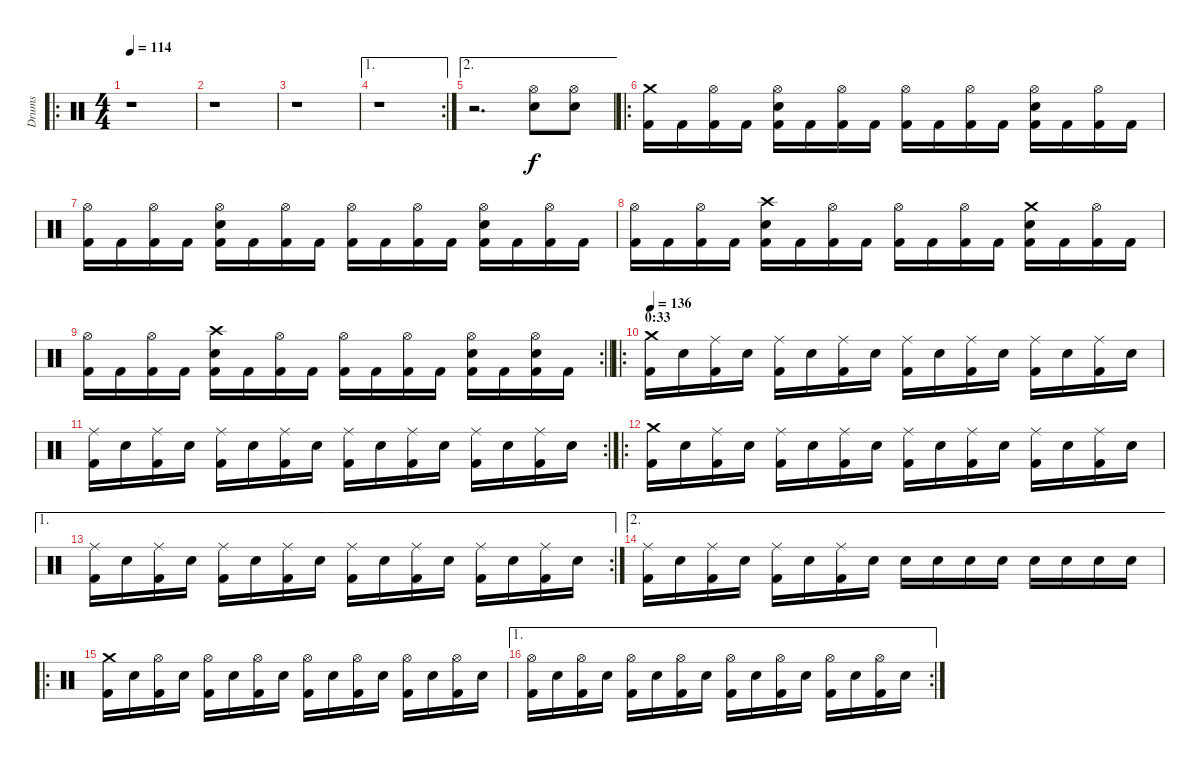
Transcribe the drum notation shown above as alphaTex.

\track ("Drums" "Drums") {instrument percussion}
\staff {score}
\articulation defaults
\ro
\ts (4 4)
\tempo 114
\clef neutral
\ks c
r.1{dy f} |
r.1 |
r.1 |
\ae 1
\rc 2
r.1 |
\ae 2
r.2{d} ("Hi-Hat (open)" "Electric Snare (hit)").8 ("Hi-Hat (open)" "Electric Snare (hit)").8 |
\ro
("Crash medium (hit)" "Kick (hit) 2").16 "Kick (hit) 2".16 ("Hi-Hat (open)" "Kick (hit) 2").16 "Kick (hit) 2".16 ("Hi-Hat (open)" "Electric Snare (hit)" "Kick (hit) 2").16 "Kick (hit) 2".16 ("Hi-Hat (open)" "Kick (hit) 2").16 "Kick (hit) 2".16 ("Hi-Hat (open)" "Kick (hit) 2").16 "Kick (hit) 2".16 ("Hi-Hat (open)" "Kick (hit) 2").16 "Kick (hit) 2".16 ("Hi-Hat (open)" "Electric Snare (hit)" "Kick (hit) 2").16 "Kick (hit) 2".16 ("Hi-Hat (open)" "Kick (hit) 2").16 "Kick (hit) 2".16 |
("Hi-Hat (open)" "Kick (hit) 2").16 "Kick (hit) 2".16 ("Hi-Hat (open)" "Kick (hit) 2").16 "Kick (hit) 2".16 ("Hi-Hat (open)" "Electric Snare (hit)" "Kick (hit) 2").16 "Kick (hit) 2".16 ("Hi-Hat (open)" "Kick (hit) 2").16 "Kick (hit) 2".16 ("Hi-Hat (open)" "Kick (hit) 2").16 "Kick (hit) 2".16 ("Hi-Hat (open)" "Kick (hit) 2").16 "Kick (hit) 2".16 ("Hi-Hat (open)" "Electric Snare (hit)" "Kick (hit) 2").16 "Kick (hit) 2".16 ("Hi-Hat (open)" "Kick (hit) 2").16 "Kick (hit) 2".16 |
("Hi-Hat (open)" "Kick (hit) 2").16 "Kick (hit) 2".16 ("Hi-Hat (open)" "Kick (hit) 2").16 "Kick (hit) 2".16 ("Crash high (hit)" "Electric Snare (hit)" "Kick (hit) 2").16 "Kick (hit) 2".16 ("Hi-Hat (open)" "Kick (hit) 2").16 "Kick (hit) 2".16 ("Hi-Hat (open)" "Kick (hit) 2").16 "Kick (hit) 2".16 ("Hi-Hat (open)" "Kick (hit) 2").16 "Kick (hit) 2".16 ("Crash medium (hit)" "Electric Snare (hit)" "Kick (hit) 2").16 "Kick (hit) 2".16 ("Hi-Hat (open)" "Kick (hit) 2").16 "Kick (hit) 2".16 |
\rc 2
\barLineRight lightlight
("Hi-Hat (open)" "Kick (hit) 2").16 "Kick (hit) 2".16 ("Hi-Hat (open)" "Kick (hit) 2").16 "Kick (hit) 2".16 ("Crash high (hit)" "Electric Snare (hit)" "Kick (hit) 2").16 "Kick (hit) 2".16 ("Hi-Hat (open)" "Kick (hit) 2").16 "Kick (hit) 2".16 ("Hi-Hat (open)" "Kick (hit) 2").16 "Kick (hit) 2".16 ("Hi-Hat (open)" "Kick (hit) 2").16 "Kick (hit) 2".16 ("Hi-Hat (open)" "Electric Snare (hit)" "Kick (hit) 2").16 "Kick (hit) 2".16 ("Hi-Hat (open)" "Electric Snare (hit)" "Kick (hit) 2").16 "Kick (hit) 2".16 |
\ro
\section ("" "0:33")
\tempo 136
("Crash medium (hit)" "Kick (hit) 2").16 "Electric Snare (hit)".16 ("Ride (middle)" "Kick (hit) 2").16 "Electric Snare (hit)".16 ("Ride (middle)" "Kick (hit) 2").16 "Electric Snare (hit)".16 ("Ride (middle)" "Kick (hit) 2").16 "Electric Snare (hit)".16 ("Ride (middle)" "Kick (hit) 2").16 "Electric Snare (hit)".16 ("Ride (middle)" "Kick (hit) 2").16 "Electric Snare (hit)".16 ("Ride (middle)" "Kick (hit) 2").16 "Electric Snare (hit)".16 ("Ride (middle)" "Kick (hit) 2").16 "Electric Snare (hit)".16 |
\rc 2
("Ride (middle)" "Kick (hit) 2").16 "Electric Snare (hit)".16 ("Ride (middle)" "Kick (hit) 2").16 "Electric Snare (hit)".16 ("Ride (middle)" "Kick (hit) 2").16 "Electric Snare (hit)".16 ("Ride (middle)" "Kick (hit) 2").16 "Electric Snare (hit)".16 ("Ride (middle)" "Kick (hit) 2").16 "Electric Snare (hit)".16 ("Ride (middle)" "Kick (hit) 2").16 "Electric Snare (hit)".16 ("Ride (middle)" "Kick (hit) 2").16 "Electric Snare (hit)".16 ("Ride (middle)" "Kick (hit) 2").16 "Electric Snare (hit)".16 |
\ro
("Crash medium (hit)" "Kick (hit) 2").16 "Electric Snare (hit)".16 ("Ride (middle)" "Kick (hit) 2").16 "Electric Snare (hit)".16 ("Ride (middle)" "Kick (hit) 2").16 "Electric Snare (hit)".16 ("Ride (middle)" "Kick (hit) 2").16 "Electric Snare (hit)".16 ("Ride (middle)" "Kick (hit) 2").16 "Electric Snare (hit)".16 ("Ride (middle)" "Kick (hit) 2").16 "Electric Snare (hit)".16 ("Ride (middle)" "Kick (hit) 2").16 "Electric Snare (hit)".16 ("Ride (middle)" "Kick (hit) 2").16 "Electric Snare (hit)".16 |
\ae 1
\rc 2
("Ride (middle)" "Kick (hit) 2").16 "Electric Snare (hit)".16 ("Ride (middle)" "Kick (hit) 2").16 "Electric Snare (hit)".16 ("Ride (middle)" "Kick (hit) 2").16 "Electric Snare (hit)".16 ("Ride (middle)" "Kick (hit) 2").16 "Electric Snare (hit)".16 ("Ride (middle)" "Kick (hit) 2").16 "Electric Snare (hit)".16 ("Ride (middle)" "Kick (hit) 2").16 "Electric Snare (hit)".16 ("Ride (middle)" "Kick (hit) 2").16 "Electric Snare (hit)".16 ("Ride (middle)" "Kick (hit) 2").16 "Electric Snare (hit)".16 |
\ae 2
("Ride (middle)" "Kick (hit) 2").16 "Electric Snare (hit)".16 ("Ride (middle)" "Kick (hit) 2").16 "Electric Snare (hit)".16 ("Ride (middle)" "Kick (hit) 2").16 "Electric Snare (hit)".16 ("Ride (middle)" "Kick (hit) 2").16 "Electric Snare (hit)".16 "Electric Snare (hit)".16 "Electric Snare (hit)".16 "Electric Snare (hit)".16 "Electric Snare (hit)".16 "Electric Snare (hit)".16 "Electric Snare (hit)".16 "Electric Snare (hit)".16 "Electric Snare (hit)".16 |
\ro
("Crash medium (hit)" "Kick (hit) 2").16 "Electric Snare (hit)".16 ("Hi-Hat (open)" "Kick (hit) 2").16 "Electric Snare (hit)".16 ("Hi-Hat (open)" "Kick (hit) 2").16 "Electric Snare (hit)".16 ("Hi-Hat (open)" "Kick (hit) 2").16 "Electric Snare (hit)".16 ("Hi-Hat (open)" "Kick (hit) 2").16 "Electric Snare (hit)".16 ("Hi-Hat (open)" "Kick (hit) 2").16 "Electric Snare (hit)".16 ("Hi-Hat (open)" "Kick (hit) 2").16 "Electric Snare (hit)".16 ("Hi-Hat (open)" "Kick (hit) 2").16 "Electric Snare (hit)".16 |
\ae 1
\rc 2
("Hi-Hat (open)" "Kick (hit) 2").16 "Electric Snare (hit)".16 ("Hi-Hat (open)" "Kick (hit) 2").16 "Electric Snare (hit)".16 ("Hi-Hat (open)" "Kick (hit) 2").16 "Electric Snare (hit)".16 ("Hi-Hat (open)" "Kick (hit) 2").16 "Electric Snare (hit)".16 ("Hi-Hat (open)" "Kick (hit) 2").16 "Electric Snare (hit)".16 ("Hi-Hat (open)" "Kick (hit) 2").16 "Electric Snare (hit)".16 ("Hi-Hat (open)" "Kick (hit) 2").16 "Electric Snare (hit)".16 ("Hi-Hat (open)" "Kick (hit) 2").16 "Electric Snare (hit)".16
